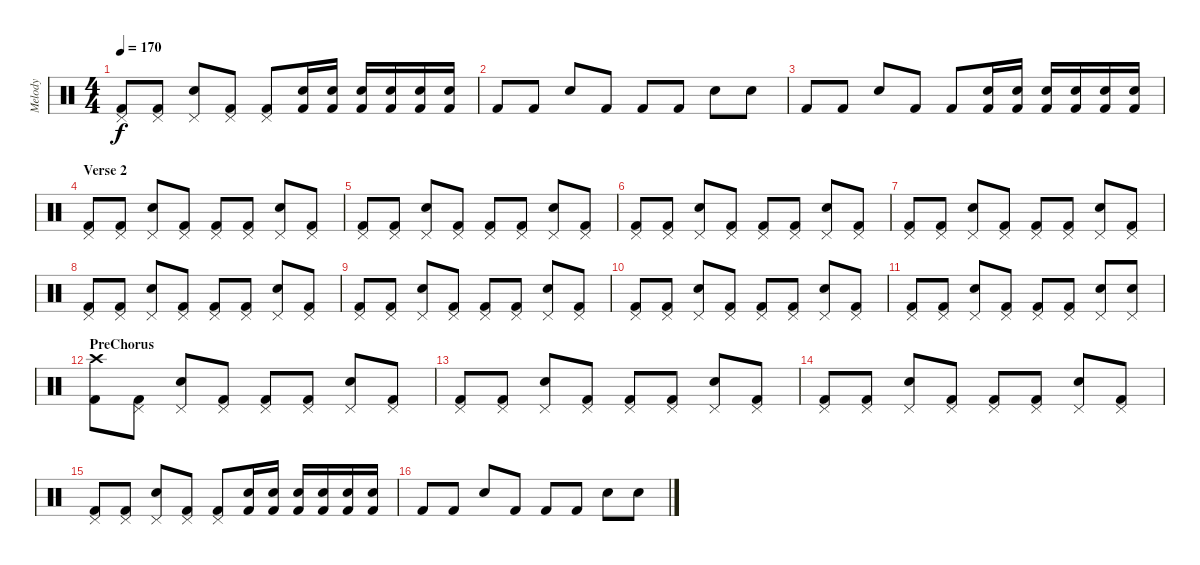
\track ("Melody" "Melody") {instrument percussion}
\staff {score}
\articulation defaults
\ts (4 4)
\tempo 170
\clef neutral
\ks c
("Pedal Hi-Hat (hit)" "Kick (hit) 2").8{dy f} ("Pedal Hi-Hat (hit)" "Kick (hit) 2").8 ("Pedal Hi-Hat (hit)" "Snare (hit) 2").8 ("Pedal Hi-Hat (hit)" "Kick (hit) 2").8 ("Pedal Hi-Hat (hit)" "Kick (hit) 2").8 ("Snare (hit) 2" "Kick (hit) 2").16 ("Snare (hit) 2" "Kick (hit) 2").16 ("Snare (hit) 2" "Kick (hit) 2").16 ("Snare (hit) 2" "Kick (hit) 2").16 ("Snare (hit) 2" "Kick (hit) 2").16 ("Snare (hit) 2" "Kick (hit) 2").16 |
"Kick (hit) 2".8 "Kick (hit) 2".8 "Snare (hit) 2".8 "Kick (hit) 2".8 "Kick (hit) 2".8 "Kick (hit) 2".8 "Snare (hit) 2".8 "Snare (hit) 2".8 |
"Kick (hit) 2".8 "Kick (hit) 2".8 "Snare (hit) 2".8 "Kick (hit) 2".8 "Kick (hit) 2".8 ("Snare (hit) 2" "Kick (hit) 2").16 ("Snare (hit) 2" "Kick (hit) 2").16 ("Snare (hit) 2" "Kick (hit) 2").16 ("Snare (hit) 2" "Kick (hit) 2").16 ("Snare (hit) 2" "Kick (hit) 2").16 ("Snare (hit) 2" "Kick (hit) 2").16 |
\section ("" "Verse 2")
("Pedal Hi-Hat (hit)" "Kick (hit) 2").8 ("Pedal Hi-Hat (hit)" "Kick (hit) 2").8 ("Pedal Hi-Hat (hit)" "Snare (hit) 2").8 ("Pedal Hi-Hat (hit)" "Kick (hit) 2").8 ("Pedal Hi-Hat (hit)" "Kick (hit) 2").8 ("Pedal Hi-Hat (hit)" "Kick (hit) 2").8 ("Pedal Hi-Hat (hit)" "Snare (hit) 2").8 ("Pedal Hi-Hat (hit)" "Kick (hit) 2").8 |
("Pedal Hi-Hat (hit)" "Kick (hit) 2").8 ("Pedal Hi-Hat (hit)" "Kick (hit) 2").8 ("Pedal Hi-Hat (hit)" "Snare (hit) 2").8 ("Pedal Hi-Hat (hit)" "Kick (hit) 2").8 ("Pedal Hi-Hat (hit)" "Kick (hit) 2").8 ("Pedal Hi-Hat (hit)" "Kick (hit) 2").8 ("Pedal Hi-Hat (hit)" "Snare (hit) 2").8 ("Pedal Hi-Hat (hit)" "Kick (hit) 2").8 |
("Pedal Hi-Hat (hit)" "Kick (hit) 2").8 ("Pedal Hi-Hat (hit)" "Kick (hit) 2").8 ("Pedal Hi-Hat (hit)" "Snare (hit) 2").8 ("Pedal Hi-Hat (hit)" "Kick (hit) 2").8 ("Pedal Hi-Hat (hit)" "Kick (hit) 2").8 ("Pedal Hi-Hat (hit)" "Kick (hit) 2").8 ("Pedal Hi-Hat (hit)" "Snare (hit) 2").8 ("Pedal Hi-Hat (hit)" "Kick (hit) 2").8 |
("Pedal Hi-Hat (hit)" "Kick (hit) 2").8 ("Pedal Hi-Hat (hit)" "Kick (hit) 2").8 ("Pedal Hi-Hat (hit)" "Snare (hit) 2").8 ("Pedal Hi-Hat (hit)" "Kick (hit) 2").8 ("Pedal Hi-Hat (hit)" "Kick (hit) 2").8 ("Pedal Hi-Hat (hit)" "Kick (hit) 2").8 ("Pedal Hi-Hat (hit)" "Snare (hit) 2").8 ("Pedal Hi-Hat (hit)" "Kick (hit) 2").8 |
("Pedal Hi-Hat (hit)" "Kick (hit) 2").8 ("Pedal Hi-Hat (hit)" "Kick (hit) 2").8 ("Pedal Hi-Hat (hit)" "Snare (hit) 2").8 ("Pedal Hi-Hat (hit)" "Kick (hit) 2").8 ("Pedal Hi-Hat (hit)" "Kick (hit) 2").8 ("Pedal Hi-Hat (hit)" "Kick (hit) 2").8 ("Pedal Hi-Hat (hit)" "Snare (hit) 2").8 ("Pedal Hi-Hat (hit)" "Kick (hit) 2").8 |
("Pedal Hi-Hat (hit)" "Kick (hit) 2").8 ("Pedal Hi-Hat (hit)" "Kick (hit) 2").8 ("Pedal Hi-Hat (hit)" "Snare (hit) 2").8 ("Pedal Hi-Hat (hit)" "Kick (hit) 2").8 ("Pedal Hi-Hat (hit)" "Kick (hit) 2").8 ("Pedal Hi-Hat (hit)" "Kick (hit) 2").8 ("Pedal Hi-Hat (hit)" "Snare (hit) 2").8 ("Pedal Hi-Hat (hit)" "Kick (hit) 2").8 |
("Pedal Hi-Hat (hit)" "Kick (hit) 2").8 ("Pedal Hi-Hat (hit)" "Kick (hit) 2").8 ("Pedal Hi-Hat (hit)" "Snare (hit) 2").8 ("Pedal Hi-Hat (hit)" "Kick (hit) 2").8 ("Pedal Hi-Hat (hit)" "Kick (hit) 2").8 ("Pedal Hi-Hat (hit)" "Kick (hit) 2").8 ("Pedal Hi-Hat (hit)" "Snare (hit) 2").8 ("Pedal Hi-Hat (hit)" "Kick (hit) 2").8 |
("Pedal Hi-Hat (hit)" "Kick (hit) 2").8 ("Pedal Hi-Hat (hit)" "Kick (hit) 2").8 ("Pedal Hi-Hat (hit)" "Snare (hit) 2").8 ("Pedal Hi-Hat (hit)" "Kick (hit) 2").8 ("Pedal Hi-Hat (hit)" "Kick (hit) 2").8 ("Pedal Hi-Hat (hit)" "Kick (hit) 2").8 ("Pedal Hi-Hat (hit)" "Snare (hit) 2").8 ("Pedal Hi-Hat (hit)" "Snare (hit) 2").8 |
\section ("" "PreChorus")
("Crash high (hit)" "Kick (hit) 2").8 ("Pedal Hi-Hat (hit)" "Kick (hit) 2").8 ("Pedal Hi-Hat (hit)" "Snare (hit) 2").8 ("Pedal Hi-Hat (hit)" "Kick (hit) 2").8 ("Pedal Hi-Hat (hit)" "Kick (hit) 2").8 ("Pedal Hi-Hat (hit)" "Kick (hit) 2").8 ("Pedal Hi-Hat (hit)" "Snare (hit) 2").8 ("Pedal Hi-Hat (hit)" "Kick (hit) 2").8 |
("Pedal Hi-Hat (hit)" "Kick (hit) 2").8 ("Pedal Hi-Hat (hit)" "Kick (hit) 2").8 ("Pedal Hi-Hat (hit)" "Snare (hit) 2").8 ("Pedal Hi-Hat (hit)" "Kick (hit) 2").8 ("Pedal Hi-Hat (hit)" "Kick (hit) 2").8 ("Pedal Hi-Hat (hit)" "Kick (hit) 2").8 ("Pedal Hi-Hat (hit)" "Snare (hit) 2").8 ("Pedal Hi-Hat (hit)" "Kick (hit) 2").8 |
("Pedal Hi-Hat (hit)" "Kick (hit) 2").8 ("Pedal Hi-Hat (hit)" "Kick (hit) 2").8 ("Pedal Hi-Hat (hit)" "Snare (hit) 2").8 ("Pedal Hi-Hat (hit)" "Kick (hit) 2").8 ("Pedal Hi-Hat (hit)" "Kick (hit) 2").8 ("Pedal Hi-Hat (hit)" "Kick (hit) 2").8 ("Pedal Hi-Hat (hit)" "Snare (hit) 2").8 ("Pedal Hi-Hat (hit)" "Kick (hit) 2").8 |
("Pedal Hi-Hat (hit)" "Kick (hit) 2").8 ("Pedal Hi-Hat (hit)" "Kick (hit) 2").8 ("Pedal Hi-Hat (hit)" "Snare (hit) 2").8 ("Pedal Hi-Hat (hit)" "Kick (hit) 2").8 ("Pedal Hi-Hat (hit)" "Kick (hit) 2").8 ("Snare (hit) 2" "Kick (hit) 2").16 ("Snare (hit) 2" "Kick (hit) 2").16 ("Snare (hit) 2" "Kick (hit) 2").16 ("Snare (hit) 2" "Kick (hit) 2").16 ("Snare (hit) 2" "Kick (hit) 2").16 ("Snare (hit) 2" "Kick (hit) 2").16 |
"Kick (hit) 2".8 "Kick (hit) 2".8 "Snare (hit) 2".8 "Kick (hit) 2".8 "Kick (hit) 2".8 "Kick (hit) 2".8 "Snare (hit) 2".8 "Snare (hit) 2".8
